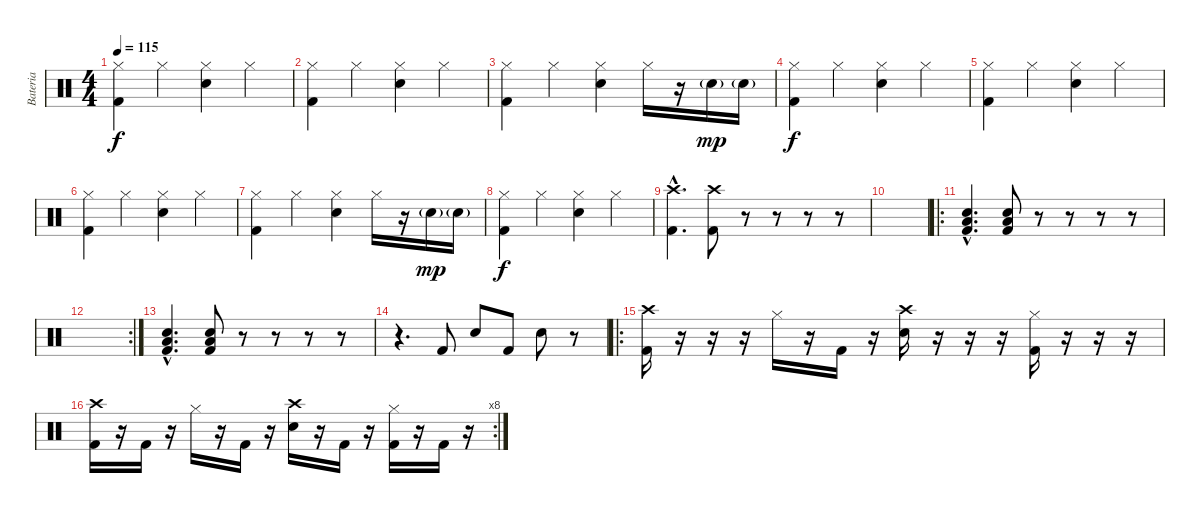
\track ("Bateria" "Bateria") {instrument percussion}
\staff {score}
\articulation defaults
\ts (4 4)
\tempo 115
\clef neutral
\ks c
("Hi-Hat (closed)" "Kick (hit) 2").4{dy f} "Hi-Hat (closed)".4 ("Hi-Hat (closed)" "Electric Snare (hit)").4 "Hi-Hat (closed)".4 |
("Hi-Hat (closed)" "Kick (hit) 2").4 "Hi-Hat (closed)".4 ("Hi-Hat (closed)" "Electric Snare (hit)").4 "Hi-Hat (closed)".4 |
("Hi-Hat (closed)" "Kick (hit) 2").4 "Hi-Hat (closed)".4 ("Hi-Hat (closed)" "Electric Snare (hit)").4 "Hi-Hat (closed)".16 r.16 "Electric Snare (hit)"{g}.16{dy mp} "Electric Snare (hit)"{g}.16 |
("Hi-Hat (closed)" "Kick (hit) 2").4{dy f} "Hi-Hat (closed)".4 ("Hi-Hat (closed)" "Electric Snare (hit)").4 "Hi-Hat (closed)".4 |
("Hi-Hat (closed)" "Kick (hit) 2").4 "Hi-Hat (closed)".4 ("Hi-Hat (closed)" "Electric Snare (hit)").4 "Hi-Hat (closed)".4 |
("Hi-Hat (closed)" "Kick (hit) 2").4 "Hi-Hat (closed)".4 ("Hi-Hat (closed)" "Electric Snare (hit)").4 "Hi-Hat (closed)".4 |
("Hi-Hat (closed)" "Kick (hit) 2").4 "Hi-Hat (closed)".4 ("Hi-Hat (closed)" "Electric Snare (hit)").4 "Hi-Hat (closed)".16 r.16 "Electric Snare (hit)"{g}.16{dy mp} "Electric Snare (hit)"{g}.16 |
("Hi-Hat (closed)" "Kick (hit) 2").4{dy f} "Hi-Hat (closed)".4 ("Hi-Hat (closed)" "Electric Snare (hit)").4 "Hi-Hat (closed)".4 |
("Crash high (hit)"{hac} "Kick (hit) 2"{hac}).4{d} ("Crash high (hit)" "Kick (hit) 2").8 r.8 r.8 r.8 r.8 |
|
\ro
("Electric Snare (hit)"{hac} "Low Floor Tom (hit)"{hac} "Kick (hit) 2"{hac}).4{d} ("Electric Snare (hit)" "Low Floor Tom (hit)" "Kick (hit) 2").8 r.8 r.8 r.8 r.8 |
\rc 2
|
("Electric Snare (hit)"{hac} "Low Floor Tom (hit)"{hac} "Kick (hit) 2"{hac}).4{d} ("Electric Snare (hit)" "Low Floor Tom (hit)" "Kick (hit) 2").8 r.8 r.8 r.8 r.8 |
r.4{d} "Kick (hit) 2".8 "Electric Snare (hit)".8 "Kick (hit) 2".8 "Electric Snare (hit)".8 r.8 |
\ro
("Crash high (hit)" "Kick (hit) 2").16 r.16 r.16 r.16 "Hi-Hat (closed)".16 r.16 "Kick (hit) 2".16 r.16 ("Crash high (hit)" "Electric Snare (hit)").16 r.16 r.16 r.16 ("Hi-Hat (closed)" "Kick (hit) 2").16 r.16 r.16 r.16 |
\rc 8
("Crash high (hit)" "Kick (hit) 2").16 r.16 "Kick (hit) 2".16 r.16 "Hi-Hat (closed)".16 r.16 "Kick (hit) 2".16 r.16 ("Crash high (hit)" "Electric Snare (hit)").16 r.16 "Kick (hit) 2".16 r.16 ("Hi-Hat (closed)" "Kick (hit) 2").16 r.16 "Kick (hit) 2".16 r.16
